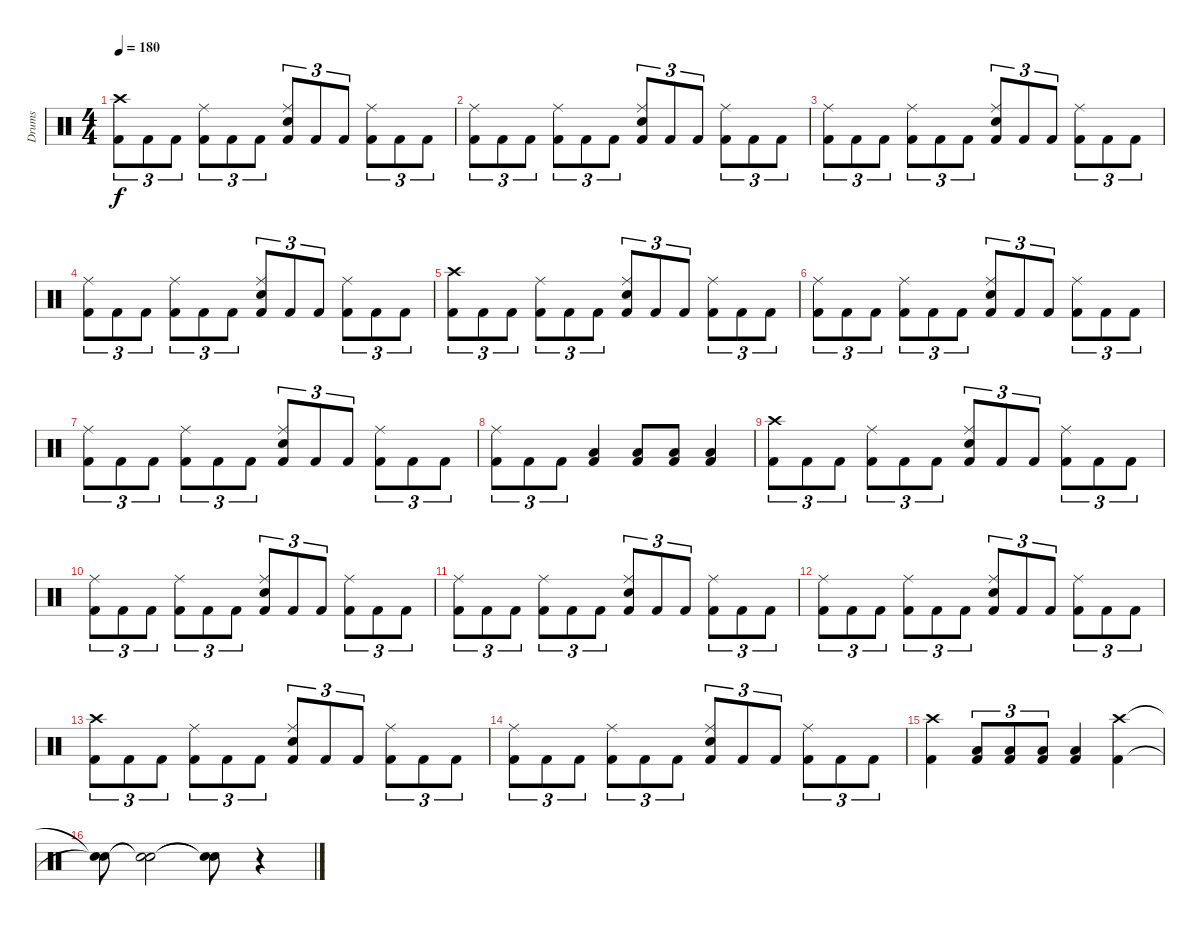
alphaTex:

\track ("Drums" "Drums") {instrument percussion}
\staff {score}
\articulation defaults
\ts (4 4)
\tempo 180
\clef neutral
\ks c
("Crash high (hit)" "Kick (hit) 2").8{tu (3 2) dy f} "Kick (hit) 2".8{tu (3 2)} "Kick (hit) 2".8{tu (3 2)} ("Ride (middle)" "Kick (hit) 2").8{tu (3 2)} "Kick (hit) 2".8{tu (3 2)} "Kick (hit) 2".8{tu (3 2)} ("Ride (middle)" "Electric Snare (hit)" "Kick (hit) 2").8{tu (3 2)} "Kick (hit) 2".8{tu (3 2)} "Kick (hit) 2".8{tu (3 2)} ("Ride (middle)" "Kick (hit) 2").8{tu (3 2)} "Kick (hit) 2".8{tu (3 2)} "Kick (hit) 2".8{tu (3 2)} |
("Ride (middle)" "Kick (hit) 2").8{tu (3 2)} "Kick (hit) 2".8{tu (3 2)} "Kick (hit) 2".8{tu (3 2)} ("Ride (middle)" "Kick (hit) 2").8{tu (3 2)} "Kick (hit) 2".8{tu (3 2)} "Kick (hit) 2".8{tu (3 2)} ("Ride (middle)" "Electric Snare (hit)" "Kick (hit) 2").8{tu (3 2)} "Kick (hit) 2".8{tu (3 2)} "Kick (hit) 2".8{tu (3 2)} ("Ride (middle)" "Kick (hit) 2").8{tu (3 2)} "Kick (hit) 2".8{tu (3 2)} "Kick (hit) 2".8{tu (3 2)} |
("Ride (middle)" "Kick (hit) 2").8{tu (3 2)} "Kick (hit) 2".8{tu (3 2)} "Kick (hit) 2".8{tu (3 2)} ("Ride (middle)" "Kick (hit) 2").8{tu (3 2)} "Kick (hit) 2".8{tu (3 2)} "Kick (hit) 2".8{tu (3 2)} ("Ride (middle)" "Electric Snare (hit)" "Kick (hit) 2").8{tu (3 2)} "Kick (hit) 2".8{tu (3 2)} "Kick (hit) 2".8{tu (3 2)} ("Ride (middle)" "Kick (hit) 2").8{tu (3 2)} "Kick (hit) 2".8{tu (3 2)} "Kick (hit) 2".8{tu (3 2)} |
("Ride (middle)" "Kick (hit) 2").8{tu (3 2)} "Kick (hit) 2".8{tu (3 2)} "Kick (hit) 2".8{tu (3 2)} ("Ride (middle)" "Kick (hit) 2").8{tu (3 2)} "Kick (hit) 2".8{tu (3 2)} "Kick (hit) 2".8{tu (3 2)} ("Ride (middle)" "Electric Snare (hit)" "Kick (hit) 2").8{tu (3 2)} "Kick (hit) 2".8{tu (3 2)} "Kick (hit) 2".8{tu (3 2)} ("Ride (middle)" "Kick (hit) 2").8{tu (3 2)} "Kick (hit) 2".8{tu (3 2)} "Kick (hit) 2".8{tu (3 2)} |
("Crash high (hit)" "Kick (hit) 2").8{tu (3 2)} "Kick (hit) 2".8{tu (3 2)} "Kick (hit) 2".8{tu (3 2)} ("Ride (middle)" "Kick (hit) 2").8{tu (3 2)} "Kick (hit) 2".8{tu (3 2)} "Kick (hit) 2".8{tu (3 2)} ("Ride (middle)" "Electric Snare (hit)" "Kick (hit) 2").8{tu (3 2)} "Kick (hit) 2".8{tu (3 2)} "Kick (hit) 2".8{tu (3 2)} ("Ride (middle)" "Kick (hit) 2").8{tu (3 2)} "Kick (hit) 2".8{tu (3 2)} "Kick (hit) 2".8{tu (3 2)} |
("Ride (middle)" "Kick (hit) 2").8{tu (3 2)} "Kick (hit) 2".8{tu (3 2)} "Kick (hit) 2".8{tu (3 2)} ("Ride (middle)" "Kick (hit) 2").8{tu (3 2)} "Kick (hit) 2".8{tu (3 2)} "Kick (hit) 2".8{tu (3 2)} ("Ride (middle)" "Electric Snare (hit)" "Kick (hit) 2").8{tu (3 2)} "Kick (hit) 2".8{tu (3 2)} "Kick (hit) 2".8{tu (3 2)} ("Ride (middle)" "Kick (hit) 2").8{tu (3 2)} "Kick (hit) 2".8{tu (3 2)} "Kick (hit) 2".8{tu (3 2)} |
("Ride (middle)" "Kick (hit) 2").8{tu (3 2)} "Kick (hit) 2".8{tu (3 2)} "Kick (hit) 2".8{tu (3 2)} ("Ride (middle)" "Kick (hit) 2").8{tu (3 2)} "Kick (hit) 2".8{tu (3 2)} "Kick (hit) 2".8{tu (3 2)} ("Ride (middle)" "Electric Snare (hit)" "Kick (hit) 2").8{tu (3 2)} "Kick (hit) 2".8{tu (3 2)} "Kick (hit) 2".8{tu (3 2)} ("Ride (middle)" "Kick (hit) 2").8{tu (3 2)} "Kick (hit) 2".8{tu (3 2)} "Kick (hit) 2".8{tu (3 2)} |
("Ride (middle)" "Kick (hit) 2").8{tu (3 2)} "Kick (hit) 2".8{tu (3 2)} "Kick (hit) 2".8{tu (3 2)} ("Low Tom (hit)" "Kick (hit) 2").4 ("Low Tom (hit)" "Kick (hit) 2").8 ("Low Tom (hit)" "Kick (hit) 2").8 ("Low Tom (hit)" "Kick (hit) 2").4 |
("Crash high (hit)" "Kick (hit) 2").8{tu (3 2)} "Kick (hit) 2".8{tu (3 2)} "Kick (hit) 2".8{tu (3 2)} ("Ride (middle)" "Kick (hit) 2").8{tu (3 2)} "Kick (hit) 2".8{tu (3 2)} "Kick (hit) 2".8{tu (3 2)} ("Ride (middle)" "Electric Snare (hit)" "Kick (hit) 2").8{tu (3 2)} "Kick (hit) 2".8{tu (3 2)} "Kick (hit) 2".8{tu (3 2)} ("Ride (middle)" "Kick (hit) 2").8{tu (3 2)} "Kick (hit) 2".8{tu (3 2)} "Kick (hit) 2".8{tu (3 2)} |
("Ride (middle)" "Kick (hit) 2").8{tu (3 2)} "Kick (hit) 2".8{tu (3 2)} "Kick (hit) 2".8{tu (3 2)} ("Ride (middle)" "Kick (hit) 2").8{tu (3 2)} "Kick (hit) 2".8{tu (3 2)} "Kick (hit) 2".8{tu (3 2)} ("Ride (middle)" "Electric Snare (hit)" "Kick (hit) 2").8{tu (3 2)} "Kick (hit) 2".8{tu (3 2)} "Kick (hit) 2".8{tu (3 2)} ("Ride (middle)" "Kick (hit) 2").8{tu (3 2)} "Kick (hit) 2".8{tu (3 2)} "Kick (hit) 2".8{tu (3 2)} |
("Ride (middle)" "Kick (hit) 2").8{tu (3 2)} "Kick (hit) 2".8{tu (3 2)} "Kick (hit) 2".8{tu (3 2)} ("Ride (middle)" "Kick (hit) 2").8{tu (3 2)} "Kick (hit) 2".8{tu (3 2)} "Kick (hit) 2".8{tu (3 2)} ("Ride (middle)" "Electric Snare (hit)" "Kick (hit) 2").8{tu (3 2)} "Kick (hit) 2".8{tu (3 2)} "Kick (hit) 2".8{tu (3 2)} ("Ride (middle)" "Kick (hit) 2").8{tu (3 2)} "Kick (hit) 2".8{tu (3 2)} "Kick (hit) 2".8{tu (3 2)} |
("Ride (middle)" "Kick (hit) 2").8{tu (3 2)} "Kick (hit) 2".8{tu (3 2)} "Kick (hit) 2".8{tu (3 2)} ("Ride (middle)" "Kick (hit) 2").8{tu (3 2)} "Kick (hit) 2".8{tu (3 2)} "Kick (hit) 2".8{tu (3 2)} ("Ride (middle)" "Electric Snare (hit)" "Kick (hit) 2").8{tu (3 2)} "Kick (hit) 2".8{tu (3 2)} "Kick (hit) 2".8{tu (3 2)} ("Ride (middle)" "Kick (hit) 2").8{tu (3 2)} "Kick (hit) 2".8{tu (3 2)} "Kick (hit) 2".8{tu (3 2)} |
("Crash high (hit)" "Kick (hit) 2").8{tu (3 2)} "Kick (hit) 2".8{tu (3 2)} "Kick (hit) 2".8{tu (3 2)} ("Ride (middle)" "Kick (hit) 2").8{tu (3 2)} "Kick (hit) 2".8{tu (3 2)} "Kick (hit) 2".8{tu (3 2)} ("Ride (middle)" "Electric Snare (hit)" "Kick (hit) 2").8{tu (3 2)} "Kick (hit) 2".8{tu (3 2)} "Kick (hit) 2".8{tu (3 2)} ("Ride (middle)" "Kick (hit) 2").8{tu (3 2)} "Kick (hit) 2".8{tu (3 2)} "Kick (hit) 2".8{tu (3 2)} |
("Ride (middle)" "Kick (hit) 2").8{tu (3 2)} "Kick (hit) 2".8{tu (3 2)} "Kick (hit) 2".8{tu (3 2)} ("Ride (middle)" "Kick (hit) 2").8{tu (3 2)} "Kick (hit) 2".8{tu (3 2)} "Kick (hit) 2".8{tu (3 2)} ("Ride (middle)" "Electric Snare (hit)" "Kick (hit) 2").8{tu (3 2)} "Kick (hit) 2".8{tu (3 2)} "Kick (hit) 2".8{tu (3 2)} ("Ride (middle)" "Kick (hit) 2").8{tu (3 2)} "Kick (hit) 2".8{tu (3 2)} "Kick (hit) 2".8{tu (3 2)} |
("Crash high (hit)" "Kick (hit) 2").4 ("Low Tom (hit)" "Kick (hit) 2").8{tu (3 2)} ("Low Tom (hit)" "Kick (hit) 2").8{tu (3 2)} ("Low Tom (hit)" "Kick (hit) 2").8{tu (3 2)} ("Low Tom (hit)" "Kick (hit) 2").4 ("Crash high (hit)" "Kick (hit) 2").4 |
("Snare (hit)"{t} "Snare (hit)"{t}).8 ("Snare (hit)"{t} "Snare (hit)"{t}).2 ("Snare (hit)"{t} "Snare (hit)"{t}).8 r.4
